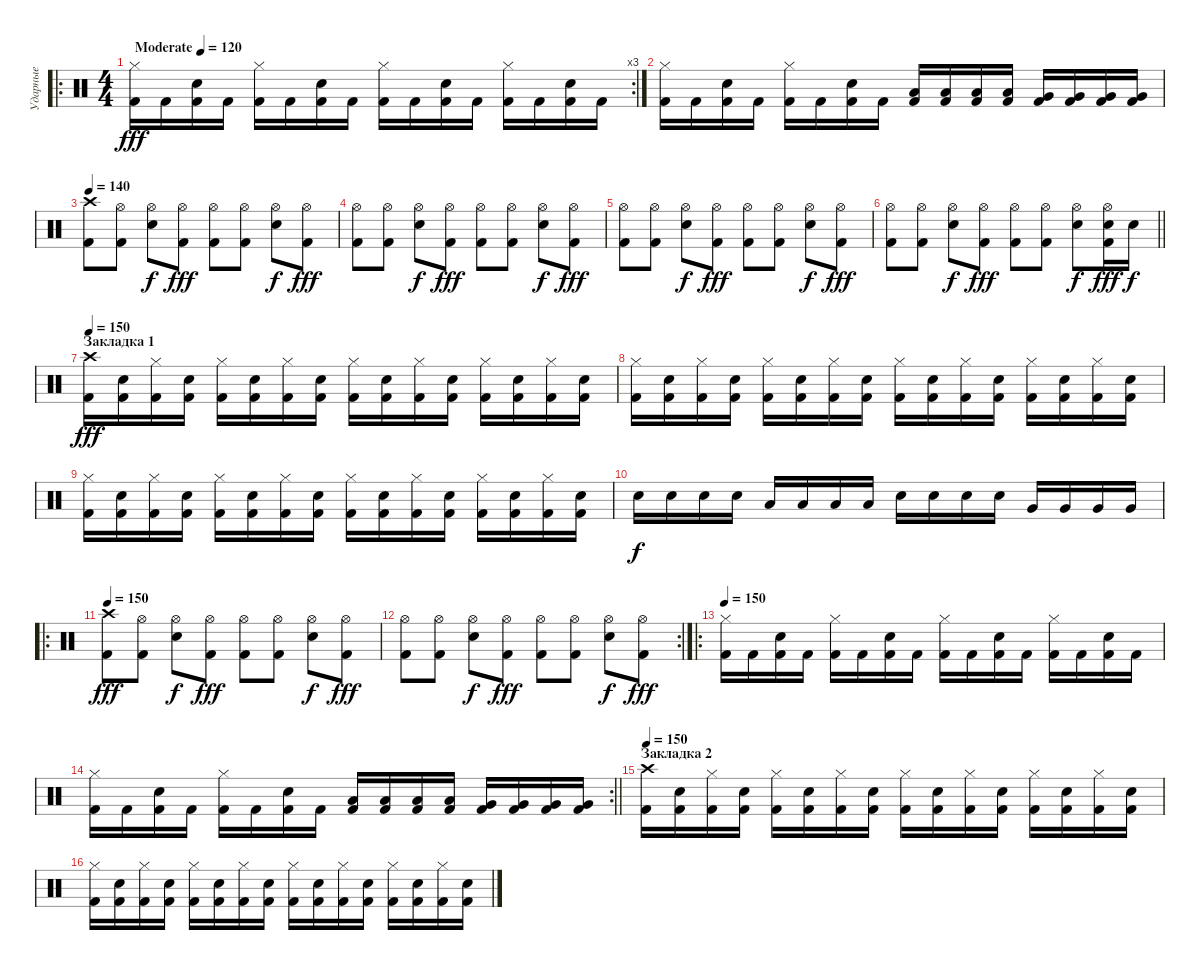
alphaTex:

\track ("Ударные" "Ударные") {instrument percussion}
\staff {score}
\articulation defaults
\ro
\rc 3
\ts (4 4)
\tempo (120 "Moderate")
\clef neutral
\ks c
("Hi-Hat (closed)" "Kick (hit) 2").16{dy fff} "Kick (hit) 2".16 ("Snare (hit) 2" "Kick (hit) 2").16 "Kick (hit) 2".16 ("Hi-Hat (closed)" "Kick (hit) 2").16 "Kick (hit) 2".16 ("Snare (hit) 2" "Kick (hit) 2").16 "Kick (hit) 2".16 ("Hi-Hat (closed)" "Kick (hit) 2").16 "Kick (hit) 2".16 ("Snare (hit) 2" "Kick (hit) 2").16 "Kick (hit) 2".16 ("Hi-Hat (closed)" "Kick (hit) 2").16 "Kick (hit) 2".16 ("Snare (hit) 2" "Kick (hit) 2").16 "Kick (hit) 2".16 |
("Hi-Hat (closed)" "Kick (hit) 2").16 "Kick (hit) 2".16 ("Snare (hit) 2" "Kick (hit) 2").16 "Kick (hit) 2".16 ("Hi-Hat (closed)" "Kick (hit) 2").16 "Kick (hit) 2".16 ("Snare (hit) 2" "Kick (hit) 2").16 "Kick (hit) 2".16 ("Low Tom (hit)" "Kick (hit) 2").16 ("Low Tom (hit)" "Kick (hit) 2").16 ("Low Tom (hit)" "Kick (hit) 2").16 ("Low Tom (hit)" "Kick (hit) 2").16 ("Very Low Tom (hit)" "Kick (hit) 2").16 ("Very Low Tom (hit)" "Kick (hit) 2").16 ("Very Low Tom (hit)" "Kick (hit) 2").16 ("Very Low Tom (hit)" "Kick (hit) 2").16 |
\tempo 140
("Crash high (hit)" "Kick (hit) 2").8 ("Hi-Hat (open)" "Kick (hit) 2").8 ("Hi-Hat (open)" "Snare (hit) 2").8{dy f} ("Hi-Hat (open)" "Kick (hit) 2").8{dy fff} ("Hi-Hat (open)" "Kick (hit) 2").8 ("Hi-Hat (open)" "Kick (hit) 2").8 ("Hi-Hat (open)" "Snare (hit) 2").8{dy f} ("Hi-Hat (open)" "Kick (hit) 2").8{dy fff} |
("Hi-Hat (open)" "Kick (hit) 2").8 ("Hi-Hat (open)" "Kick (hit) 2").8 ("Hi-Hat (open)" "Snare (hit) 2").8{dy f} ("Hi-Hat (open)" "Kick (hit) 2").8{dy fff} ("Hi-Hat (open)" "Kick (hit) 2").8 ("Hi-Hat (open)" "Kick (hit) 2").8 ("Hi-Hat (open)" "Snare (hit) 2").8{dy f} ("Hi-Hat (open)" "Kick (hit) 2").8{dy fff} |
("Hi-Hat (open)" "Kick (hit) 2").8 ("Hi-Hat (open)" "Kick (hit) 2").8 ("Hi-Hat (open)" "Snare (hit) 2").8{dy f} ("Hi-Hat (open)" "Kick (hit) 2").8{dy fff} ("Hi-Hat (open)" "Kick (hit) 2").8 ("Hi-Hat (open)" "Kick (hit) 2").8 ("Hi-Hat (open)" "Snare (hit) 2").8{dy f} ("Hi-Hat (open)" "Kick (hit) 2").8{dy fff} |
\barLineRight lightlight
("Hi-Hat (open)" "Kick (hit) 2").8 ("Hi-Hat (open)" "Kick (hit) 2").8 ("Hi-Hat (open)" "Snare (hit) 2").8{dy f} ("Hi-Hat (open)" "Kick (hit) 2").8{dy fff} ("Hi-Hat (open)" "Kick (hit) 2").8 ("Hi-Hat (open)" "Kick (hit) 2").8 ("Hi-Hat (open)" "Snare (hit) 2").8{dy f} ("Hi-Hat (open)" "Snare (hit) 2" "Kick (hit) 2").16{dy fff} "Snare (hit) 2".16{dy f} |
\section ("" "Закладка 1")
\tempo 150
("Crash high (hit)" "Kick (hit) 2").16{dy fff} ("Snare (hit) 2" "Kick (hit) 2").16 ("Hi-Hat (closed)" "Kick (hit) 2").16 ("Snare (hit) 2" "Kick (hit) 2").16 ("Hi-Hat (closed)" "Kick (hit) 2").16 ("Snare (hit) 2" "Kick (hit) 2").16 ("Hi-Hat (closed)" "Kick (hit) 2").16 ("Snare (hit) 2" "Kick (hit) 2").16 ("Hi-Hat (closed)" "Kick (hit) 2").16 ("Snare (hit) 2" "Kick (hit) 2").16 ("Hi-Hat (closed)" "Kick (hit) 2").16 ("Snare (hit) 2" "Kick (hit) 2").16 ("Hi-Hat (closed)" "Kick (hit) 2").16 ("Snare (hit) 2" "Kick (hit) 2").16 ("Hi-Hat (closed)" "Kick (hit) 2").16 ("Snare (hit) 2" "Kick (hit) 2").16 |
("Hi-Hat (closed)" "Kick (hit) 2").16 ("Snare (hit) 2" "Kick (hit) 2").16 ("Hi-Hat (closed)" "Kick (hit) 2").16 ("Snare (hit) 2" "Kick (hit) 2").16 ("Hi-Hat (closed)" "Kick (hit) 2").16 ("Snare (hit) 2" "Kick (hit) 2").16 ("Hi-Hat (closed)" "Kick (hit) 2").16 ("Snare (hit) 2" "Kick (hit) 2").16 ("Hi-Hat (closed)" "Kick (hit) 2").16 ("Snare (hit) 2" "Kick (hit) 2").16 ("Hi-Hat (closed)" "Kick (hit) 2").16 ("Snare (hit) 2" "Kick (hit) 2").16 ("Hi-Hat (closed)" "Kick (hit) 2").16 ("Snare (hit) 2" "Kick (hit) 2").16 ("Hi-Hat (closed)" "Kick (hit) 2").16 ("Snare (hit) 2" "Kick (hit) 2").16 |
("Hi-Hat (closed)" "Kick (hit) 2").16 ("Snare (hit) 2" "Kick (hit) 2").16 ("Hi-Hat (closed)" "Kick (hit) 2").16 ("Snare (hit) 2" "Kick (hit) 2").16 ("Hi-Hat (closed)" "Kick (hit) 2").16 ("Snare (hit) 2" "Kick (hit) 2").16 ("Hi-Hat (closed)" "Kick (hit) 2").16 ("Snare (hit) 2" "Kick (hit) 2").16 ("Hi-Hat (closed)" "Kick (hit) 2").16 ("Snare (hit) 2" "Kick (hit) 2").16 ("Hi-Hat (closed)" "Kick (hit) 2").16 ("Snare (hit) 2" "Kick (hit) 2").16 ("Hi-Hat (closed)" "Kick (hit) 2").16 ("Snare (hit) 2" "Kick (hit) 2").16 ("Hi-Hat (closed)" "Kick (hit) 2").16 ("Snare (hit) 2" "Kick (hit) 2").16 |
"Snare (hit) 2".16{dy f} "Snare (hit) 2".16 "Snare (hit) 2".16 "Snare (hit) 2".16 "Low Tom (hit)".16 "Low Tom (hit)".16 "Low Tom (hit)".16 "Low Tom (hit)".16 "Snare (hit) 2".16 "Snare (hit) 2".16 "Snare (hit) 2".16 "Snare (hit) 2".16 "Very Low Tom (hit)".16 "Very Low Tom (hit)".16 "Very Low Tom (hit)".16 "Very Low Tom (hit)".16 |
\ro
\tempo 150
("Crash high (hit)" "Kick (hit) 2").8{dy fff} ("Hi-Hat (open)" "Kick (hit) 2").8 ("Hi-Hat (open)" "Snare (hit) 2").8{dy f} ("Hi-Hat (open)" "Kick (hit) 2").8{dy fff} ("Hi-Hat (open)" "Kick (hit) 2").8 ("Hi-Hat (open)" "Kick (hit) 2").8 ("Hi-Hat (open)" "Snare (hit) 2").8{dy f} ("Hi-Hat (open)" "Kick (hit) 2").8{dy fff} |
\rc 2
("Hi-Hat (open)" "Kick (hit) 2").8 ("Hi-Hat (open)" "Kick (hit) 2").8 ("Hi-Hat (open)" "Snare (hit) 2").8{dy f} ("Hi-Hat (open)" "Kick (hit) 2").8{dy fff} ("Hi-Hat (open)" "Kick (hit) 2").8 ("Hi-Hat (open)" "Kick (hit) 2").8 ("Hi-Hat (open)" "Snare (hit) 2").8{dy f} ("Hi-Hat (open)" "Kick (hit) 2").8{dy fff} |
\ro
\tempo 150
("Hi-Hat (closed)" "Kick (hit) 2").16 "Kick (hit) 2".16 ("Snare (hit) 2" "Kick (hit) 2").16 "Kick (hit) 2".16 ("Hi-Hat (closed)" "Kick (hit) 2").16 "Kick (hit) 2".16 ("Snare (hit) 2" "Kick (hit) 2").16 "Kick (hit) 2".16 ("Hi-Hat (closed)" "Kick (hit) 2").16 "Kick (hit) 2".16 ("Snare (hit) 2" "Kick (hit) 2").16 "Kick (hit) 2".16 ("Hi-Hat (closed)" "Kick (hit) 2").16 "Kick (hit) 2".16 ("Snare (hit) 2" "Kick (hit) 2").16 "Kick (hit) 2".16 |
\rc 2
\barLineRight lightlight
("Hi-Hat (closed)" "Kick (hit) 2").16 "Kick (hit) 2".16 ("Snare (hit) 2" "Kick (hit) 2").16 "Kick (hit) 2".16 ("Hi-Hat (closed)" "Kick (hit) 2").16 "Kick (hit) 2".16 ("Snare (hit) 2" "Kick (hit) 2").16 "Kick (hit) 2".16 ("Low Tom (hit)" "Kick (hit) 2").16 ("Low Tom (hit)" "Kick (hit) 2").16 ("Low Tom (hit)" "Kick (hit) 2").16 ("Low Tom (hit)" "Kick (hit) 2").16 ("Very Low Tom (hit)" "Kick (hit) 2").16 ("Very Low Tom (hit)" "Kick (hit) 2").16 ("Very Low Tom (hit)" "Kick (hit) 2").16 ("Very Low Tom (hit)" "Kick (hit) 2").16 |
\section ("" "Закладка 2")
\tempo 150
("Crash high (hit)" "Kick (hit) 2").16 ("Snare (hit) 2" "Kick (hit) 2").16 ("Hi-Hat (closed)" "Kick (hit) 2").16 ("Snare (hit) 2" "Kick (hit) 2").16 ("Hi-Hat (closed)" "Kick (hit) 2").16 ("Snare (hit) 2" "Kick (hit) 2").16 ("Hi-Hat (closed)" "Kick (hit) 2").16 ("Snare (hit) 2" "Kick (hit) 2").16 ("Hi-Hat (closed)" "Kick (hit) 2").16 ("Snare (hit) 2" "Kick (hit) 2").16 ("Hi-Hat (closed)" "Kick (hit) 2").16 ("Snare (hit) 2" "Kick (hit) 2").16 ("Hi-Hat (closed)" "Kick (hit) 2").16 ("Snare (hit) 2" "Kick (hit) 2").16 ("Hi-Hat (closed)" "Kick (hit) 2").16 ("Snare (hit) 2" "Kick (hit) 2").16 |
("Hi-Hat (closed)" "Kick (hit) 2").16 ("Snare (hit) 2" "Kick (hit) 2").16 ("Hi-Hat (closed)" "Kick (hit) 2").16 ("Snare (hit) 2" "Kick (hit) 2").16 ("Hi-Hat (closed)" "Kick (hit) 2").16 ("Snare (hit) 2" "Kick (hit) 2").16 ("Hi-Hat (closed)" "Kick (hit) 2").16 ("Snare (hit) 2" "Kick (hit) 2").16 ("Hi-Hat (closed)" "Kick (hit) 2").16 ("Snare (hit) 2" "Kick (hit) 2").16 ("Hi-Hat (closed)" "Kick (hit) 2").16 ("Snare (hit) 2" "Kick (hit) 2").16 ("Hi-Hat (closed)" "Kick (hit) 2").16 ("Snare (hit) 2" "Kick (hit) 2").16 ("Hi-Hat (closed)" "Kick (hit) 2").16 ("Snare (hit) 2" "Kick (hit) 2").16
